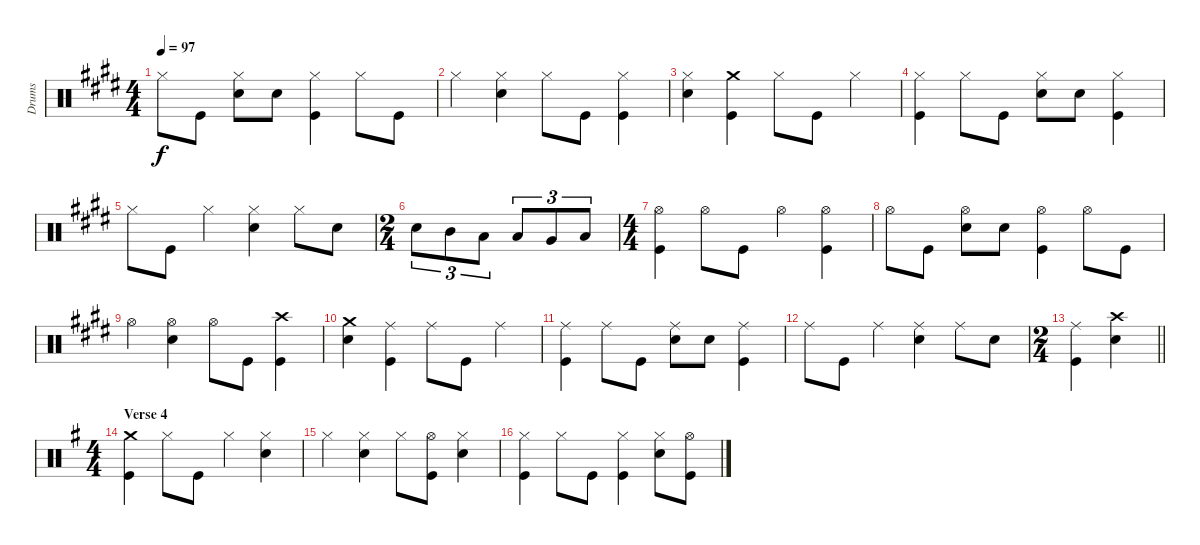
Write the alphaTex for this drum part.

\track ("Drums" "Drums") {instrument percussion}
\staff {score}
\articulation defaults
\ts (4 4)
\tempo 97
\clef neutral
\ks c#minor "Hi-Hat (closed)".8{dy f} "Kick (hit)".8
("Hi-Hat (closed)" "Snare (hit) 2").8 "Snare (hit) 2".8 ("Hi-Hat (closed)" "Kick (hit)").4 "Hi-Hat (closed)".8 "Kick (hit)".8 |
"Hi-Hat (closed)".4 ("Hi-Hat (closed)" "Snare (hit) 2").4 "Hi-Hat (closed)".8 "Kick (hit)".8 ("Hi-Hat (closed)" "Kick (hit)").4 |
("Hi-Hat (closed)" "Snare (hit) 2").4 ("Crash medium (hit)" "Kick (hit)").4 "Hi-Hat (closed)".8 "Kick (hit)".8 "Hi-Hat (closed)".4 |
("Hi-Hat (closed)" "Kick (hit)").4 "Hi-Hat (closed)".8 "Kick (hit)".8 ("Hi-Hat (closed)" "Snare (hit) 2").8 "Snare (hit) 2".8 ("Hi-Hat (closed)" "Kick (hit)").4 |
"Hi-Hat (closed)".8 "Kick (hit)".8 "Hi-Hat (closed)".4 ("Hi-Hat (closed)" "Snare (hit) 2").4 "Hi-Hat (closed)".8 "Snare (hit) 2".8 |
\ts (2 4)
"Snare (hit) 2".8{tu (3 2)} "Mid Tom (hit)".8{tu (3 2)} "Low Tom (hit)".8{tu (3 2)} "Low Tom (hit)".8{tu (3 2)} "Very Low Tom (hit)".8{tu (3 2)} "Low Floor Tom (hit)".8{tu (3 2)} |
\ts (4 4)
("Hi-Hat (open)" "Kick (hit)").4 "Hi-Hat (open)".8 "Kick (hit)".8 "Hi-Hat (open)".4 ("Hi-Hat (open)" "Kick (hit)").4 |
"Hi-Hat (open)".8 "Kick (hit)".8 ("Hi-Hat (open)" "Snare (hit) 2").8 "Snare (hit) 2".8 ("Hi-Hat (open)" "Kick (hit)").4 "Hi-Hat (open)".8 "Kick (hit)".8 |
"Hi-Hat (open)".4 ("Hi-Hat (open)" "Snare (hit) 2").4 "Hi-Hat (open)".8 "Kick (hit)".8 ("Crash high (hit)" "Kick (hit)").4 |
("Crash medium (hit)" "Snare (hit) 2").4 ("Ride (middle)" "Kick (hit)").4 "Ride (middle)".8 "Kick (hit)".8 "Ride (middle)".4 |
("Ride (middle)" "Kick (hit)").4 "Ride (middle)".8 "Kick (hit)".8 ("Ride (middle)" "Snare (hit) 2").8 "Snare (hit) 2".8 ("Ride (middle)" "Kick (hit)").4 |
"Ride (middle)".8 "Kick (hit)".8 "Ride (middle)".4 ("Ride (middle)" "Snare (hit) 2").4 "Ride (middle)".8 "Snare (hit) 2".8 |
\ts (2 4)
\barLineRight lightlight
("Ride (middle)" "Kick (hit)").4 ("Crash high (hit)" "Snare (hit) 2").4 |
\ts (4 4)
\section ("" "Verse 4")
\ks eminor
("Crash medium (hit)" "Kick (hit)").4 "Hi-Hat (closed)".8 "Kick (hit)".8 "Hi-Hat (closed)".4 ("Hi-Hat (closed)" "Snare (hit) 2").4 |
"Hi-Hat (closed)".4 ("Hi-Hat (closed)" "Snare (hit) 2").4 "Hi-Hat (closed)".8 ("Hi-Hat (open)" "Kick (hit)").8 ("Hi-Hat (closed)" "Snare (hit) 2").4 |
("Hi-Hat (closed)" "Kick (hit)").4 "Hi-Hat (closed)".8 "Kick (hit)".8 ("Hi-Hat (closed)" "Kick (hit)").4 ("Hi-Hat (closed)" "Snare (hit) 2").8 ("Hi-Hat (open)" "Kick (hit)").8
